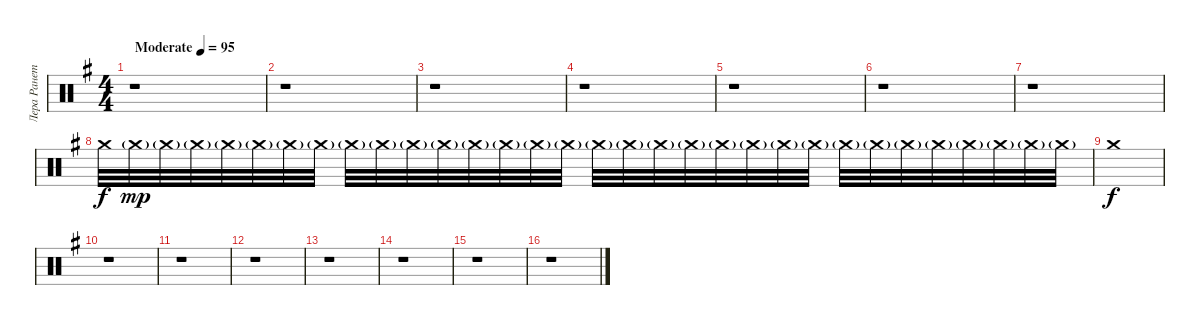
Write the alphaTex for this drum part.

\track ("Лера Ранетка" "Лера Ранет") {instrument percussion}
\staff {score}
\articulation defaults
\ts (4 4)
\tempo (95 "Moderate")
\clef neutral
\ks eminor
r.1{dy f} |
r.1 |
r.1 |
r.1 |
r.1 |
r.1 |
r.1 |
"Crash medium (hit)".32{volume 3} "Crash medium (hit)"{g}.32{dy mp volume 10} "Crash medium (hit)"{g}.32 "Crash medium (hit)"{g}.32 "Crash medium (hit)"{g}.32 "Crash medium (hit)"{g}.32 "Crash medium (hit)"{g}.32 "Crash medium (hit)"{g}.32 "Crash medium (hit)"{g}.32 "Crash medium (hit)"{g}.32 "Crash medium (hit)"{g}.32 "Crash medium (hit)"{g}.32 "Crash medium (hit)"{g}.32 "Crash medium (hit)"{g}.32 "Crash medium (hit)"{g}.32 "Crash medium (hit)"{g}.32 "Crash medium (hit)"{g}.32 "Crash medium (hit)"{g}.32 "Crash medium (hit)"{g}.32 "Crash medium (hit)"{g}.32 "Crash medium (hit)"{g}.32 "Crash medium (hit)"{g}.32 "Crash medium (hit)"{g}.32 "Crash medium (hit)"{g}.32 "Crash medium (hit)"{g}.32 "Crash medium (hit)"{g}.32 "Crash medium (hit)"{g}.32 "Crash medium (hit)"{g}.32 "Crash medium (hit)"{g}.32 "Crash medium (hit)"{g}.32 "Crash medium (hit)"{g}.32 "Crash medium (hit)"{g}.32 |
"Crash medium (hit)".1{dy f} |
r.1 |
r.1 |
r.1 |
r.1 |
r.1 |
r.1 |
r.1
